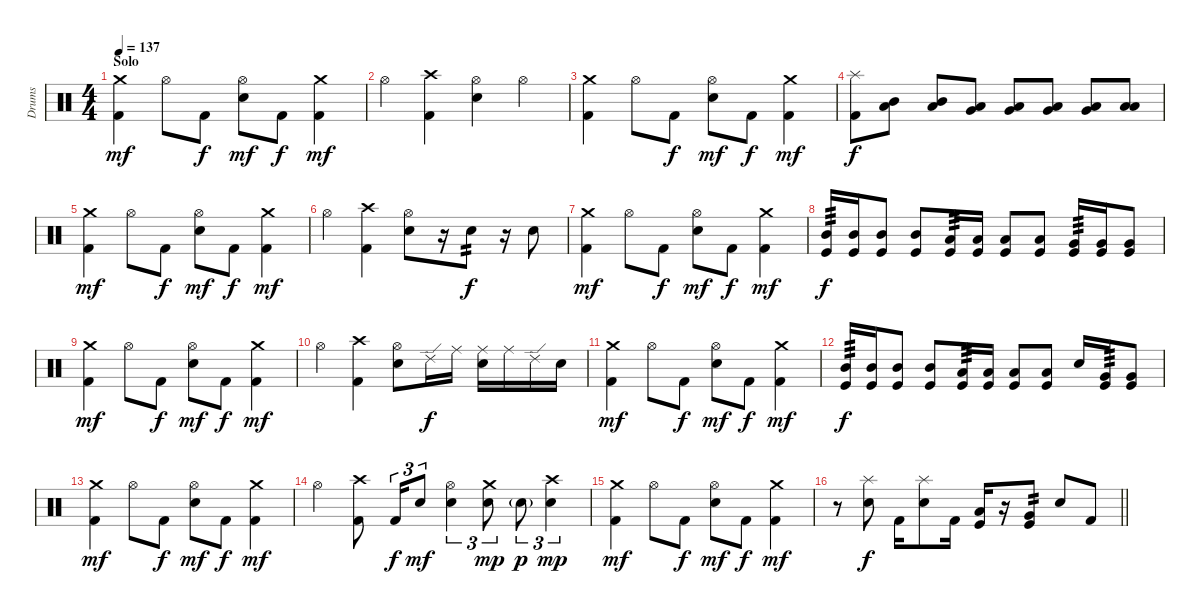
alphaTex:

\track ("Drums" "Drums") {instrument percussion}
\staff {score}
\articulation defaults
\ts (4 4)
\section ("" "Solo")
\tempo 137
\clef neutral
\ks c
("Crash medium (hit)" "Kick (hit) 2").4{dy mf} "Hi-Hat (open)".8 "Kick (hit) 2".8{dy f} ("Hi-Hat (open)" "Electric Snare (hit)").8{dy mf} "Kick (hit) 2".8{dy f} ("Crash medium (hit)" "Kick (hit) 2").4{dy mf} |
"Hi-Hat (open)".4 ("Crash high (hit)" "Kick (hit) 2").4 ("Hi-Hat (open)" "Electric Snare (hit)").4 "Hi-Hat (open)".4 |
("Crash medium (hit)" "Kick (hit) 2").4 "Hi-Hat (open)".8 "Kick (hit) 2".8{dy f} ("Hi-Hat (open)" "Electric Snare (hit)").8{dy mf} "Kick (hit) 2".8{dy f} ("Crash medium (hit)" "Kick (hit) 2").4{dy mf} |
("Splash (hit)" "Kick (hit) 2").8{dy f} ("Mid Tom (hit)" "Low Tom (hit)").8 ("Mid Tom (hit)" "Low Tom (hit)").8 ("Low Tom (hit)" "Very Low Tom (hit)").8 ("Low Tom (hit)" "Very Low Tom (hit)").8 ("Very Low Tom (hit)" "Low Floor Tom (hit)").8 ("Very Low Tom (hit)" "Low Floor Tom (hit)").8 ("Low Floor Tom (hit)" "Low Floor Tom (hit)").8 |
("Crash medium (hit)" "Kick (hit) 2").4{dy mf} "Hi-Hat (open)".8 "Kick (hit) 2".8{dy f} ("Hi-Hat (open)" "Electric Snare (hit)").8{dy mf} "Kick (hit) 2".8{dy f} ("Crash medium (hit)" "Kick (hit) 2").4{dy mf} |
"Hi-Hat (open)".4 ("Crash high (hit)" "Kick (hit) 2").4 ("Hi-Hat (open)" "Electric Snare (hit)").8 r.16 "Electric Snare (hit)".8{tp 2 dy f} r.16 "Electric Snare (hit)".8 |
("Crash medium (hit)" "Kick (hit) 2").4{dy mf} "Hi-Hat (open)".8 "Kick (hit) 2".8{dy f} ("Hi-Hat (open)" "Electric Snare (hit)").8{dy mf} "Kick (hit) 2".8{dy f} ("Crash medium (hit)" "Kick (hit) 2").4{dy mf} |
("Mid Tom (hit)" "Kick (hit)").16{tp 3 dy f} ("Mid Tom (hit)" "Kick (hit)").16 ("Mid Tom (hit)" "Kick (hit)").8 ("Mid Tom (hit)" "Kick (hit)").8 ("Low Tom (hit)" "Kick (hit)").16{tp 3} ("Low Tom (hit)" "Kick (hit)").16 ("Low Tom (hit)" "Kick (hit)").8 ("Low Tom (hit)" "Kick (hit)").8 ("Very Low Tom (hit)" "Kick (hit)").16{tp 3} ("Very Low Tom (hit)" "Kick (hit)").16 ("Very Low Tom (hit)" "Kick (hit)").8 |
("Crash medium (hit)" "Kick (hit) 2").4{dy mf} "Hi-Hat (open)".8 "Kick (hit) 2".8{dy f} ("Hi-Hat (open)" "Electric Snare (hit)").8{dy mf} "Kick (hit) 2".8{dy f} ("Crash medium (hit)" "Kick (hit) 2").4{dy mf} |
"Hi-Hat (open)".4 ("Crash high (hit)" "Kick (hit) 2").4 ("Hi-Hat (open)" "Electric Snare (hit)").8 "Ride (edge) 2".16{dy f} "Ride (middle)".16 ("Ride (middle)" "Electric Snare (hit)").16 "Ride (middle)".16 "Ride (edge) 2".16 "Electric Snare (hit)".16 |
("Crash medium (hit)" "Kick (hit) 2").4{dy mf} "Hi-Hat (open)".8 "Kick (hit) 2".8{dy f} ("Hi-Hat (open)" "Electric Snare (hit)").8{dy mf} "Kick (hit) 2".8{dy f} ("Crash medium (hit)" "Kick (hit) 2").4{dy mf} |
("Mid Tom (hit)" "Kick (hit)").16{tp 3 dy f} ("Mid Tom (hit)" "Kick (hit)").16 ("Mid Tom (hit)" "Kick (hit)").8 ("Mid Tom (hit)" "Kick (hit)").8 ("Low Tom (hit)" "Kick (hit)").16{tp 3} ("Low Tom (hit)" "Kick (hit)").16 ("Low Tom (hit)" "Kick (hit)").8 ("Low Tom (hit)" "Kick (hit)").8 "Electric Snare (hit)".16 ("Very Low Tom (hit)" "Kick (hit)").16{tp 3} ("Very Low Tom (hit)" "Kick (hit)").8 |
("Crash medium (hit)" "Kick (hit) 2").4{dy mf} "Hi-Hat (open)".8 "Kick (hit) 2".8{dy f} ("Hi-Hat (open)" "Electric Snare (hit)").8{dy mf} "Kick (hit) 2".8{dy f} ("Crash medium (hit)" "Kick (hit) 2").4{dy mf} |
"Hi-Hat (open)".4 ("Crash high (hit)" "Kick (hit) 2").8 "Kick (hit) 2".16{tu (3 2) dy f} "Electric Snare (hit)".8{tu (3 2) dy mf} ("Hi-Hat (open)" "Electric Snare (hit)").4{tu (3 2)} ("Crash medium (hit)" "Electric Snare (hit)").8{tu (3 2) dy mp} "Electric Snare (hit)"{g}.8{tu (3 2) dy p} ("Crash high (hit)" "Electric Snare (hit)").4{tu (3 2) dy mp} |
("Crash medium (hit)" "Kick (hit) 2").4{dy mf} "Hi-Hat (open)".8 "Kick (hit) 2".8{dy f} ("Hi-Hat (open)" "Electric Snare (hit)").8{dy mf} "Kick (hit) 2".8{dy f} ("Crash medium (hit)" "Kick (hit) 2").4{dy mf} |
\barLineRight lightlight
r.8 ("Splash (hit)" "Electric Snare (hit)").8{dy f} "Kick (hit) 2".16 ("Splash (hit)" "Electric Snare (hit)").8 "Kick (hit) 2".16 ("Low Tom (hit)" "Kick (hit)").16 r.16 ("Very Low Tom (hit)" "Kick (hit)").8{tp 2} "Electric Snare (hit)".8 "Kick (hit) 2".8
